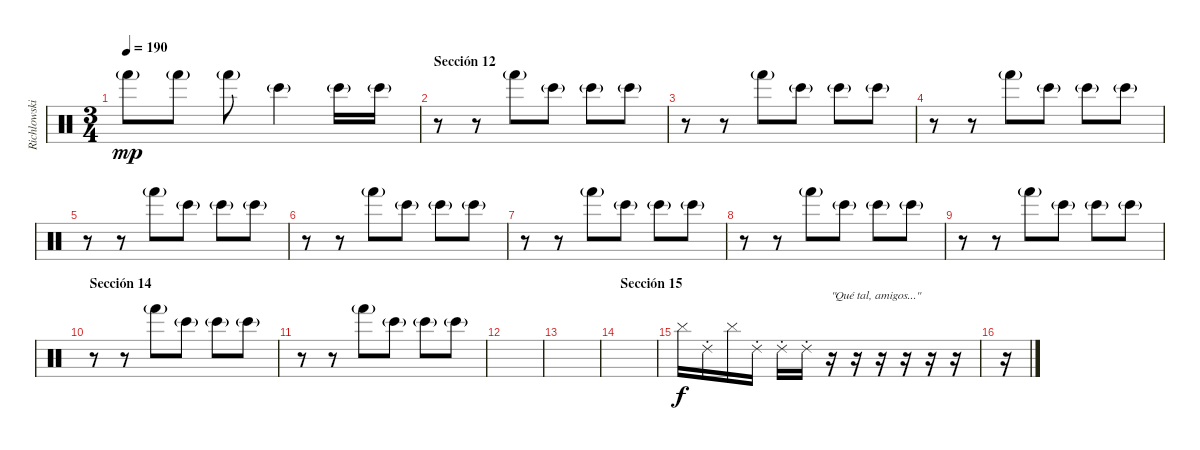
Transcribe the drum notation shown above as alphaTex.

\track ("Richlowski y Dj Raff" "Richlowski") {instrument percussion}
\staff {score}
\articulation defaults
\ts (3 4)
\tempo 190
\clef neutral
\ks c "Hand (hit)"{g}.8{dy mp} "Hand (hit)"{g}.8 "Hand (hit)"{g}.8 "Bongo High (hit)"{g}.4 "Bongo High (hit)"{g}.16 "Bongo High (hit)"{g}.16
|
\section ("" "Sección 12")
r.8 r.8 "Hand (hit)"{g}.8 "Bongo High (hit)"{g}.8 "Bongo High (hit)"{g}.8 "Bongo High (hit)"{g}.8 |
r.8 r.8 "Hand (hit)"{g}.8 "Bongo High (hit)"{g}.8 "Bongo High (hit)"{g}.8 "Bongo High (hit)"{g}.8 |
r.8 r.8 "Hand (hit)"{g}.8 "Bongo High (hit)"{g}.8 "Bongo High (hit)"{g}.8 "Bongo High (hit)"{g}.8 |
r.8 r.8 "Hand (hit)"{g}.8 "Bongo High (hit)"{g}.8 "Bongo High (hit)"{g}.8 "Bongo High (hit)"{g}.8 |
r.8 r.8 "Hand (hit)"{g}.8 "Bongo High (hit)"{g}.8 "Bongo High (hit)"{g}.8 "Bongo High (hit)"{g}.8 |
r.8 r.8 "Hand (hit)"{g}.8 "Bongo High (hit)"{g}.8 "Bongo High (hit)"{g}.8 "Bongo High (hit)"{g}.8 |
r.8 r.8 "Hand (hit)"{g}.8 "Bongo High (hit)"{g}.8 "Bongo High (hit)"{g}.8 "Bongo High (hit)"{g}.8 |
r.8 r.8 "Hand (hit)"{g}.8 "Bongo High (hit)"{g}.8 "Bongo High (hit)"{g}.8 "Bongo High (hit)"{g}.8 |
\section ("" "Sección 14")
r.8 r.8 "Hand (hit)"{g}.8 "Bongo High (hit)"{g}.8 "Bongo High (hit)"{g}.8 "Bongo High (hit)"{g}.8 |
r.8 r.8 "Hand (hit)"{g}.8 "Bongo High (hit)"{g}.8 "Bongo High (hit)"{g}.8 "Bongo High (hit)"{g}.8 |
|
|
\section ("" "Sección 15")
|
"Cymbal (hit)".16{dy f} "Ride (choke) 2".16 "Cymbal (hit)".16 "Ride (choke) 2".16 "Ride (choke) 2".16 "Ride (choke) 2".16 r.16{txt "\"Qué tal, amigos...\""} r.16 r.16 r.16 r.16 r.16 |
r.16
